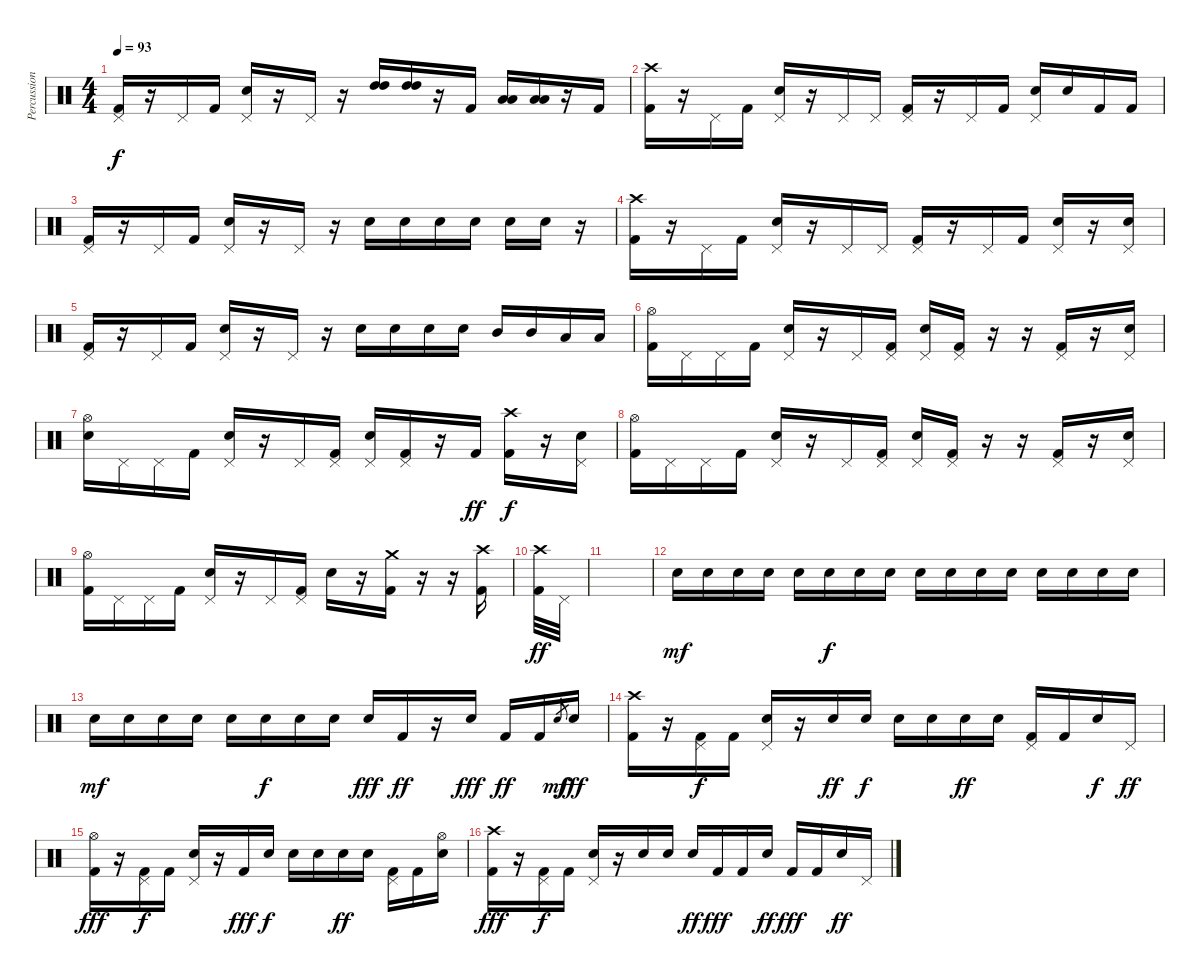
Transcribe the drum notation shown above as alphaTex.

\track ("Percussion" "Percussion") {instrument percussion}
\staff {score}
\articulation defaults
\ts (4 4)
\tempo 93
\clef neutral
\ks c
("Pedal Hi-Hat (hit)" "Kick (hit) 2").16{dy f} r.16 "Pedal Hi-Hat (hit)".16 "Kick (hit) 2".16 ("Pedal Hi-Hat (hit)" "Snare (hit) 2").16 r.16 "Pedal Hi-Hat (hit)".16 r.16 ("High Tom (hit)" "High Tom (hit)").16 ("High Tom (hit)" "High Tom (hit)").16 r.16 "Kick (hit) 2".16 ("Low Tom (hit)" "Low Tom (hit)").16 ("Low Tom (hit)" "Low Tom (hit)").16 r.16 "Kick (hit) 2".16 |
("Crash high (hit)" "Kick (hit) 2").16 r.16 "Pedal Hi-Hat (hit)".16 "Kick (hit) 2".16 ("Pedal Hi-Hat (hit)" "Snare (hit) 2").16 r.16 "Pedal Hi-Hat (hit)".16 "Pedal Hi-Hat (hit)".16 ("Pedal Hi-Hat (hit)" "Kick (hit) 2").16 r.16 "Pedal Hi-Hat (hit)".16 "Kick (hit) 2".16 ("Pedal Hi-Hat (hit)" "Snare (hit) 2").16 "Snare (hit) 2".16 "Kick (hit) 2".16 "Kick (hit) 2".16 |
("Pedal Hi-Hat (hit)" "Kick (hit) 2").16 r.16 "Pedal Hi-Hat (hit)".16 "Kick (hit) 2".16 ("Pedal Hi-Hat (hit)" "Snare (hit) 2").16 r.16 "Pedal Hi-Hat (hit)".16 r.16 "Snare (hit) 2".16 "Snare (hit) 2".16 "Snare (hit) 2".16 "Snare (hit) 2".16 "Snare (hit) 2".16 "Snare (hit) 2".16 r.16 |
("Crash high (hit)" "Kick (hit) 2").16 r.16 "Pedal Hi-Hat (hit)".16 "Kick (hit) 2".16 ("Pedal Hi-Hat (hit)" "Snare (hit) 2").16 r.16 "Pedal Hi-Hat (hit)".16 "Pedal Hi-Hat (hit)".16 ("Pedal Hi-Hat (hit)" "Kick (hit) 2").16 r.16 "Pedal Hi-Hat (hit)".16 "Kick (hit) 2".16 ("Pedal Hi-Hat (hit)" "Snare (hit) 2").16 r.16 ("Pedal Hi-Hat (hit)" "Snare (hit) 2").16 |
("Pedal Hi-Hat (hit)" "Kick (hit) 2").16 r.16 "Pedal Hi-Hat (hit)".16 "Kick (hit) 2".16 ("Pedal Hi-Hat (hit)" "Snare (hit) 2").16 r.16 "Pedal Hi-Hat (hit)".16 r.16 "Snare (hit) 2".16 "Snare (hit) 2".16 "Snare (hit) 2".16 "Snare (hit) 2".16 "Mid Tom (hit)".16 "Mid Tom (hit)".16 "Low Tom (hit)".16 "Low Tom (hit)".16 |
("Hi-Hat (open)" "Kick (hit) 2").16 "Pedal Hi-Hat (hit)".16 "Pedal Hi-Hat (hit)".16 "Kick (hit) 2".16 ("Pedal Hi-Hat (hit)" "Snare (hit) 2").16 r.16 "Pedal Hi-Hat (hit)".16 ("Pedal Hi-Hat (hit)" "Kick (hit) 2").16 ("Pedal Hi-Hat (hit)" "Snare (hit) 2").16 ("Pedal Hi-Hat (hit)" "Kick (hit) 2").16 r.16 r.16 ("Pedal Hi-Hat (hit)" "Kick (hit) 2").16 r.16 ("Pedal Hi-Hat (hit)" "Snare (hit) 2").16 |
("Hi-Hat (open)" "Snare (hit)").16 "Pedal Hi-Hat (hit)".16 "Pedal Hi-Hat (hit)".16 "Kick (hit) 2".16 ("Pedal Hi-Hat (hit)" "Snare (hit) 2").16 r.16 "Pedal Hi-Hat (hit)".16 ("Pedal Hi-Hat (hit)" "Kick (hit) 2").16 ("Pedal Hi-Hat (hit)" "Snare (hit) 2").16 ("Pedal Hi-Hat (hit)" "Kick (hit) 2").16 r.16 "Kick (hit) 2".16{dy ff} ("Crash high (hit)" "Kick (hit) 2").16{dy f} r.16 ("Pedal Hi-Hat (hit)" "Snare (hit) 2").16 |
("Hi-Hat (open)" "Kick (hit) 2").16 "Pedal Hi-Hat (hit)".16 "Pedal Hi-Hat (hit)".16 "Kick (hit) 2".16 ("Pedal Hi-Hat (hit)" "Snare (hit) 2").16 r.16 "Pedal Hi-Hat (hit)".16 ("Pedal Hi-Hat (hit)" "Kick (hit) 2").16 ("Pedal Hi-Hat (hit)" "Snare (hit) 2").16 ("Pedal Hi-Hat (hit)" "Kick (hit) 2").16 r.16 r.16 ("Pedal Hi-Hat (hit)" "Kick (hit) 2").16 r.16 ("Pedal Hi-Hat (hit)" "Snare (hit) 2").16 |
("Hi-Hat (open)" "Kick (hit) 2").16 "Pedal Hi-Hat (hit)".16 "Pedal Hi-Hat (hit)".16 "Kick (hit) 2".16 ("Pedal Hi-Hat (hit)" "Snare (hit) 2").16 r.16 "Pedal Hi-Hat (hit)".16 ("Pedal Hi-Hat (hit)" "Kick (hit) 2").16 "Snare (hit) 2".16 r.16 ("Crash medium (hit)" "Kick (hit) 2").16 r.16 r.16 ("Crash high (hit)" "Kick (hit) 2").16 |
("Crash high (hit)" "Kick (hit) 2").32{dy ff} "Pedal Hi-Hat (hit)".32 |
|
"Snare (hit) 2".16{dy mf} "Snare (hit) 2".16 "Snare (hit) 2".16 "Snare (hit) 2".16 "Snare (hit) 2".16 "Snare (hit) 2".16{dy f} "Snare (hit) 2".16 "Snare (hit) 2".16 "Snare (hit) 2".16 "Snare (hit) 2".16 "Snare (hit) 2".16 "Snare (hit) 2".16 "Snare (hit) 2".16 "Snare (hit) 2".16 "Snare (hit) 2".16 "Snare (hit) 2".16 |
"Snare (hit) 2".16{dy mf} "Snare (hit) 2".16 "Snare (hit) 2".16 "Snare (hit) 2".16 "Snare (hit) 2".16 "Snare (hit) 2".16{dy f} "Snare (hit) 2".16 "Snare (hit) 2".16 "Snare (hit) 2".16{dy fff} "Kick (hit) 2".16{dy ff} r.16 "Snare (hit) 2".16{dy fff} "Kick (hit) 2".16{dy ff} "Kick (hit) 2".16 "Snare (hit) 2"{h}.8{gr dy mf} "Snare (hit) 2".16{dy fff} |
("Kick (hit) 2" "Crash high (hit)").16 r.16 ("Pedal Hi-Hat (hit)" "Kick (hit) 2").16{dy f} "Kick (hit) 2".16 ("Pedal Hi-Hat (hit)" "Snare (hit) 2").16 r.16 "Snare (hit) 2".16{dy ff} "Snare (hit) 2".16{dy f} "Snare (hit) 2".16 "Snare (hit) 2".16 "Snare (hit) 2".16{dy ff} "Snare (hit) 2".16 ("Pedal Hi-Hat (hit)" "Kick (hit) 2").16 "Kick (hit) 2".16 "Snare (hit) 2".16{dy f} "Pedal Hi-Hat (hit)".16{dy ff} |
("Kick (hit) 2" "Hi-Hat (open)").16{dy fff} r.16 ("Pedal Hi-Hat (hit)" "Kick (hit) 2").16{dy f} "Kick (hit) 2".16 ("Pedal Hi-Hat (hit)" "Snare (hit) 2").16 r.16 "Kick (hit) 2".16{dy fff} "Snare (hit) 2".16{dy f} "Snare (hit) 2".16 "Snare (hit) 2".16 "Snare (hit) 2".16{dy ff} "Snare (hit) 2".16 ("Pedal Hi-Hat (hit)" "Kick (hit) 2").16 "Kick (hit) 2".16 ("Hi-Hat (open)" "Snare (hit) 2").16 |
("Kick (hit) 2" "Crash high (hit)").16{dy fff} r.16 ("Pedal Hi-Hat (hit)" "Kick (hit) 2").16{dy f} "Kick (hit) 2".16 ("Pedal Hi-Hat (hit)" "Snare (hit) 2").16 r.16 "Snare (hit) 2".16 "Snare (hit) 2".16 "Snare (hit) 2".16{dy ff} "Kick (hit) 2".16{dy fff} "Kick (hit) 2".16 "Snare (hit) 2".16{dy ff} "Kick (hit) 2".16{dy fff} "Kick (hit) 2".16 "Snare (hit) 2".16{dy ff} "Pedal Hi-Hat (hit)".16
